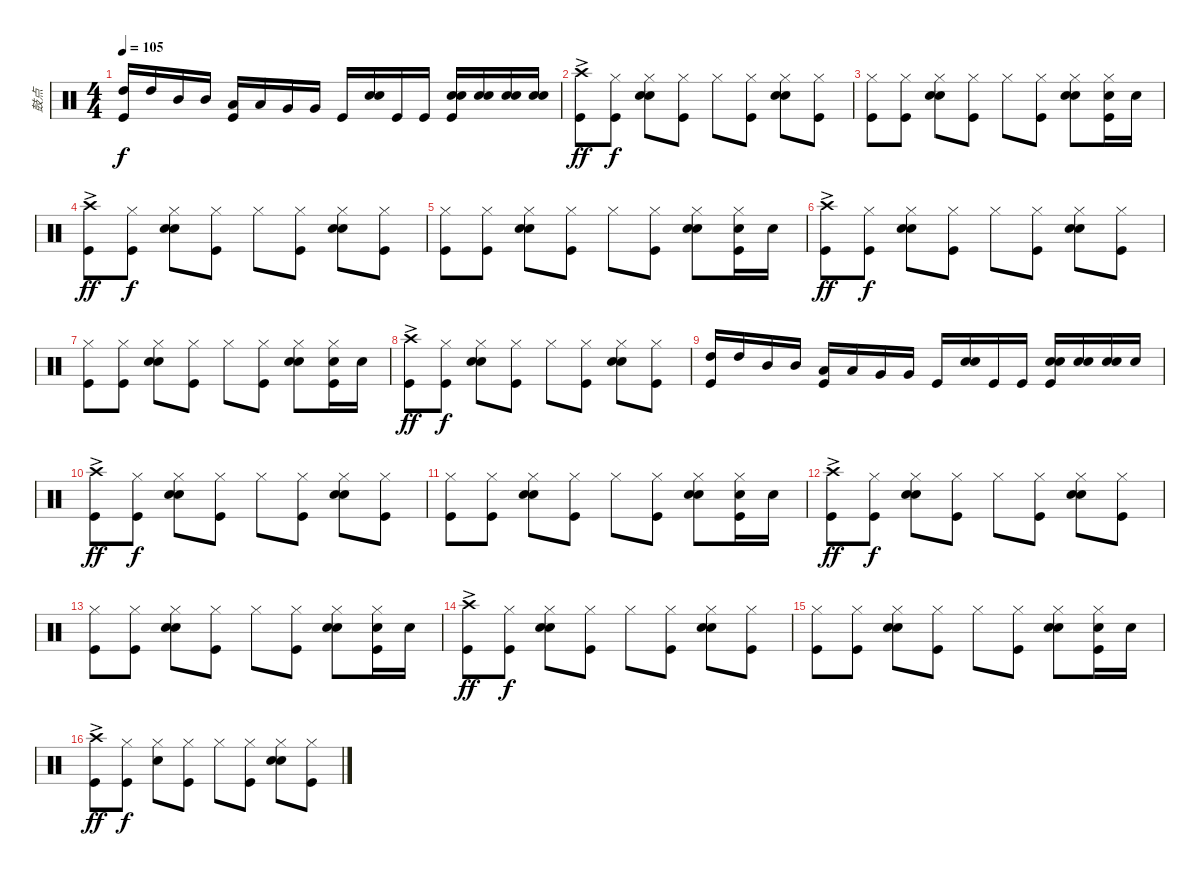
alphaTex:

\track ("鼓点" "鼓点") {instrument percussion}
\staff {score}
\articulation defaults
\ts (4 4)
\tempo 105
\clef neutral
\ks c
("High Tom (hit)" "Kick (hit)").16{dy f volume 9} "High Tom (hit)".16 "Mid Tom (hit)".16 "Mid Tom (hit)".16 ("Low Tom (hit)" "Kick (hit)").16 "Low Tom (hit)".16 "Very Low Tom (hit)".16 "Very Low Tom (hit)".16 "Kick (hit)".16 ("Electric Snare (hit)" "Snare (hit) 2").16 "Kick (hit)".16 "Kick (hit)".16 ("Snare (hit) 2" "Electric Snare (hit)" "Kick (hit)").16 ("Snare (hit) 2" "Electric Snare (hit)").16 ("Snare (hit) 2" "Electric Snare (hit)").16 ("Snare (hit) 2" "Electric Snare (hit)").16 |
("Crash high (hit)"{ac} "Kick (hit)").8{dy ff} ("Hi-Hat (closed)" "Kick (hit)").8{dy f} ("Hi-Hat (closed)" "Electric Snare (hit)" "Snare (hit) 2").8 ("Hi-Hat (closed)" "Kick (hit)").8 "Hi-Hat (closed)".8 ("Hi-Hat (closed)" "Kick (hit)").8 ("Hi-Hat (closed)" "Electric Snare (hit)" "Snare (hit) 2").8 ("Hi-Hat (closed)" "Kick (hit)").8 |
("Hi-Hat (closed)" "Kick (hit)").8 ("Hi-Hat (closed)" "Kick (hit)").8 ("Hi-Hat (closed)" "Electric Snare (hit)" "Snare (hit) 2").8 ("Hi-Hat (closed)" "Kick (hit)").8 "Hi-Hat (closed)".8 ("Hi-Hat (closed)" "Kick (hit)").8 ("Hi-Hat (closed)" "Electric Snare (hit)" "Snare (hit) 2").8 ("Hi-Hat (closed)" "Electric Snare (hit)" "Kick (hit)").16 "Electric Snare (hit)".16 |
("Crash high (hit)"{ac} "Kick (hit)").8{dy ff} ("Hi-Hat (closed)" "Kick (hit)").8{dy f} ("Hi-Hat (closed)" "Electric Snare (hit)" "Snare (hit) 2").8 ("Hi-Hat (closed)" "Kick (hit)").8 "Hi-Hat (closed)".8 ("Hi-Hat (closed)" "Kick (hit)").8 ("Hi-Hat (closed)" "Electric Snare (hit)" "Snare (hit) 2").8 ("Hi-Hat (closed)" "Kick (hit)").8 |
("Hi-Hat (closed)" "Kick (hit)").8 ("Hi-Hat (closed)" "Kick (hit)").8 ("Hi-Hat (closed)" "Electric Snare (hit)" "Snare (hit) 2").8 ("Hi-Hat (closed)" "Kick (hit)").8 "Hi-Hat (closed)".8 ("Hi-Hat (closed)" "Kick (hit)").8 ("Hi-Hat (closed)" "Electric Snare (hit)" "Snare (hit) 2").8 ("Hi-Hat (closed)" "Electric Snare (hit)" "Kick (hit)").16 "Electric Snare (hit)".16 |
("Crash high (hit)"{ac} "Kick (hit)").8{dy ff} ("Hi-Hat (closed)" "Kick (hit)").8{dy f} ("Hi-Hat (closed)" "Electric Snare (hit)" "Snare (hit) 2").8 ("Hi-Hat (closed)" "Kick (hit)").8 "Hi-Hat (closed)".8 ("Hi-Hat (closed)" "Kick (hit)").8 ("Hi-Hat (closed)" "Electric Snare (hit)" "Snare (hit) 2").8 ("Hi-Hat (closed)" "Kick (hit)").8 |
("Hi-Hat (closed)" "Kick (hit)").8 ("Hi-Hat (closed)" "Kick (hit)").8 ("Hi-Hat (closed)" "Electric Snare (hit)" "Snare (hit) 2").8 ("Hi-Hat (closed)" "Kick (hit)").8 "Hi-Hat (closed)".8 ("Hi-Hat (closed)" "Kick (hit)").8 ("Hi-Hat (closed)" "Electric Snare (hit)" "Snare (hit) 2").8 ("Hi-Hat (closed)" "Electric Snare (hit)" "Kick (hit)").16 "Electric Snare (hit)".16 |
("Crash high (hit)"{ac} "Kick (hit)").8{dy ff} ("Hi-Hat (closed)" "Kick (hit)").8{dy f} ("Hi-Hat (closed)" "Electric Snare (hit)" "Snare (hit) 2").8 ("Hi-Hat (closed)" "Kick (hit)").8 "Hi-Hat (closed)".8 ("Hi-Hat (closed)" "Kick (hit)").8 ("Hi-Hat (closed)" "Electric Snare (hit)" "Snare (hit) 2").8 ("Hi-Hat (closed)" "Kick (hit)").8 |
("High Tom (hit)" "Kick (hit)").16 "High Tom (hit)".16 "Mid Tom (hit)".16 "Mid Tom (hit)".16 ("Low Tom (hit)" "Kick (hit)").16 "Low Tom (hit)".16 "Very Low Tom (hit)".16 "Very Low Tom (hit)".16 "Kick (hit)".16 ("Electric Snare (hit)" "Snare (hit) 2").16 "Kick (hit)".16 "Kick (hit)".16 ("Snare (hit) 2" "Electric Snare (hit)" "Kick (hit)").16 ("Snare (hit) 2" "Electric Snare (hit)").16 ("Snare (hit) 2" "Electric Snare (hit)").16 "Electric Snare (hit)".16 |
("Crash high (hit)"{ac} "Kick (hit)").8{dy ff} ("Hi-Hat (closed)" "Kick (hit)").8{dy f} ("Hi-Hat (closed)" "Electric Snare (hit)" "Snare (hit) 2").8 ("Hi-Hat (closed)" "Kick (hit)").8 "Hi-Hat (closed)".8 ("Hi-Hat (closed)" "Kick (hit)").8 ("Hi-Hat (closed)" "Electric Snare (hit)" "Snare (hit) 2").8 ("Hi-Hat (closed)" "Kick (hit)").8 |
("Hi-Hat (closed)" "Kick (hit)").8 ("Hi-Hat (closed)" "Kick (hit)").8 ("Hi-Hat (closed)" "Electric Snare (hit)" "Snare (hit) 2").8 ("Hi-Hat (closed)" "Kick (hit)").8 "Hi-Hat (closed)".8 ("Hi-Hat (closed)" "Kick (hit)").8 ("Hi-Hat (closed)" "Electric Snare (hit)" "Snare (hit) 2").8 ("Hi-Hat (closed)" "Electric Snare (hit)" "Kick (hit)").16 "Electric Snare (hit)".16 |
("Crash high (hit)"{ac} "Kick (hit)").8{dy ff} ("Hi-Hat (closed)" "Kick (hit)").8{dy f} ("Hi-Hat (closed)" "Electric Snare (hit)" "Snare (hit) 2").8 ("Hi-Hat (closed)" "Kick (hit)").8 "Hi-Hat (closed)".8 ("Hi-Hat (closed)" "Kick (hit)").8 ("Hi-Hat (closed)" "Electric Snare (hit)" "Snare (hit) 2").8 ("Hi-Hat (closed)" "Kick (hit)").8 |
("Hi-Hat (closed)" "Kick (hit)").8 ("Hi-Hat (closed)" "Kick (hit)").8 ("Hi-Hat (closed)" "Electric Snare (hit)" "Snare (hit) 2").8 ("Hi-Hat (closed)" "Kick (hit)").8 "Hi-Hat (closed)".8 ("Hi-Hat (closed)" "Kick (hit)").8 ("Hi-Hat (closed)" "Electric Snare (hit)" "Snare (hit) 2").8 ("Hi-Hat (closed)" "Electric Snare (hit)" "Kick (hit)").16 "Electric Snare (hit)".16 |
("Crash high (hit)"{ac} "Kick (hit)").8{dy ff} ("Hi-Hat (closed)" "Kick (hit)").8{dy f} ("Hi-Hat (closed)" "Electric Snare (hit)" "Snare (hit) 2").8 ("Hi-Hat (closed)" "Kick (hit)").8 "Hi-Hat (closed)".8 ("Hi-Hat (closed)" "Kick (hit)").8 ("Hi-Hat (closed)" "Electric Snare (hit)" "Snare (hit) 2").8 ("Hi-Hat (closed)" "Kick (hit)").8 |
("Hi-Hat (closed)" "Kick (hit)").8 ("Hi-Hat (closed)" "Kick (hit)").8 ("Hi-Hat (closed)" "Electric Snare (hit)" "Snare (hit) 2").8 ("Hi-Hat (closed)" "Kick (hit)").8 "Hi-Hat (closed)".8 ("Hi-Hat (closed)" "Kick (hit)").8 ("Hi-Hat (closed)" "Electric Snare (hit)" "Snare (hit) 2").8 ("Hi-Hat (closed)" "Electric Snare (hit)" "Kick (hit)").16 "Electric Snare (hit)".16 |
("Crash high (hit)"{ac} "Kick (hit)").8{dy ff} ("Hi-Hat (closed)" "Kick (hit)").8{dy f} ("Hi-Hat (closed)" "Electric Snare (hit)").8 ("Hi-Hat (closed)" "Kick (hit)").8 "Hi-Hat (closed)".8 ("Hi-Hat (closed)" "Kick (hit)").8 ("Hi-Hat (closed)" "Electric Snare (hit)" "Snare (hit) 2").8 ("Hi-Hat (closed)" "Kick (hit)").8
